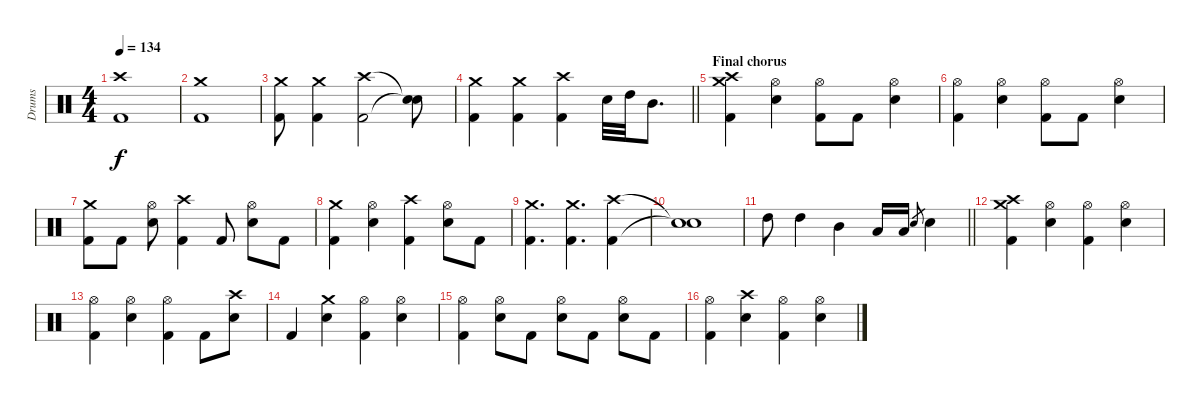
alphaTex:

\track ("Drums" "Drums") {instrument percussion}
\staff {score}
\articulation defaults
\ts (4 4)
\tempo 134
\clef neutral
\ks c
("Crash high (hit)" "Kick (hit) 2").1{dy f} |
("Crash medium (hit)" "Kick (hit) 2").1 |
("Crash medium (hit)" "Kick (hit) 2").8 ("Crash medium (hit)" "Kick (hit) 2").4 ("Crash high (hit)" "Kick (hit) 2").2 ("Snare (hit)"{t} "Snare (hit)"{t}).8 |
\barLineRight lightlight
("Crash medium (hit)" "Kick (hit) 2").4 ("Crash medium (hit)" "Kick (hit) 2").4 ("Crash high (hit)" "Kick (hit) 2").4 "Snare (hit) 2".32 "High Tom (hit)".32 "Mid Tom (hit)".8{d} |
\section ("" "Final chorus")
("Crash medium (hit)" "Crash high (hit)" "Kick (hit) 2").4 ("Hi-Hat (open)" "Snare (hit) 2").4 ("Hi-Hat (open)" "Kick (hit) 2").8 "Kick (hit) 2".8 ("Hi-Hat (open)" "Snare (hit) 2").4 |
("Hi-Hat (open)" "Kick (hit) 2").4 ("Hi-Hat (open)" "Snare (hit) 2").4 ("Hi-Hat (open)" "Kick (hit) 2").8 "Kick (hit) 2".8 ("Hi-Hat (open)" "Snare (hit) 2").4 |
("Crash medium (hit)" "Kick (hit) 2").8 "Kick (hit) 2".8 ("Hi-Hat (open)" "Snare (hit) 2").8 ("Crash high (hit)" "Kick (hit) 2").4 "Kick (hit) 2".8 ("Hi-Hat (open)" "Snare (hit) 2").8 "Kick (hit) 2".8 |
("Crash medium (hit)" "Kick (hit) 2").4 ("Hi-Hat (open)" "Snare (hit) 2").4 ("Crash high (hit)" "Kick (hit) 2").4 ("Hi-Hat (open)" "Snare (hit) 2").8 "Kick (hit) 2".8 |
("Crash medium (hit)" "Kick (hit) 2").4{d} ("Crash medium (hit)" "Kick (hit) 2").4{d} ("Crash high (hit)" "Kick (hit) 2").4 |
("Snare (hit)"{t} "Snare (hit)"{t}).1 |
\barLineRight lightlight "High Tom (hit)".8 "High Tom (hit)".4 "Mid Tom (hit)".4 "Low Tom (hit)".16 "Low Tom (hit)".16 "Snare (hit) 2".8{gr} "Snare (hit) 2".4
|
("Crash medium (hit)" "Crash high (hit)" "Kick (hit) 2").4 ("Hi-Hat (open)" "Snare (hit) 2").4 ("Hi-Hat (open)" "Kick (hit) 2").4 ("Hi-Hat (open)" "Snare (hit) 2").4 |
("Hi-Hat (open)" "Kick (hit) 2").4 ("Hi-Hat (open)" "Snare (hit) 2").4 ("Hi-Hat (open)" "Kick (hit) 2").4 "Kick (hit) 2".8 ("Crash high (hit)" "Snare (hit) 2").8 |
"Kick (hit) 2".4 ("Crash medium (hit)" "Snare (hit) 2").4 ("Hi-Hat (open)" "Kick (hit) 2").4 ("Hi-Hat (open)" "Snare (hit) 2").4 |
("Hi-Hat (open)" "Kick (hit) 2").4 ("Hi-Hat (open)" "Snare (hit) 2").8 "Kick (hit) 2".8 ("Hi-Hat (open)" "Snare (hit) 2").8 "Kick (hit) 2".8 ("Hi-Hat (open)" "Snare (hit) 2").8 "Kick (hit) 2".8 |
("Hi-Hat (open)" "Kick (hit) 2").4 ("Crash high (hit)" "Snare (hit) 2").4 ("Hi-Hat (open)" "Kick (hit) 2").4 ("Hi-Hat (open)" "Snare (hit) 2").4
